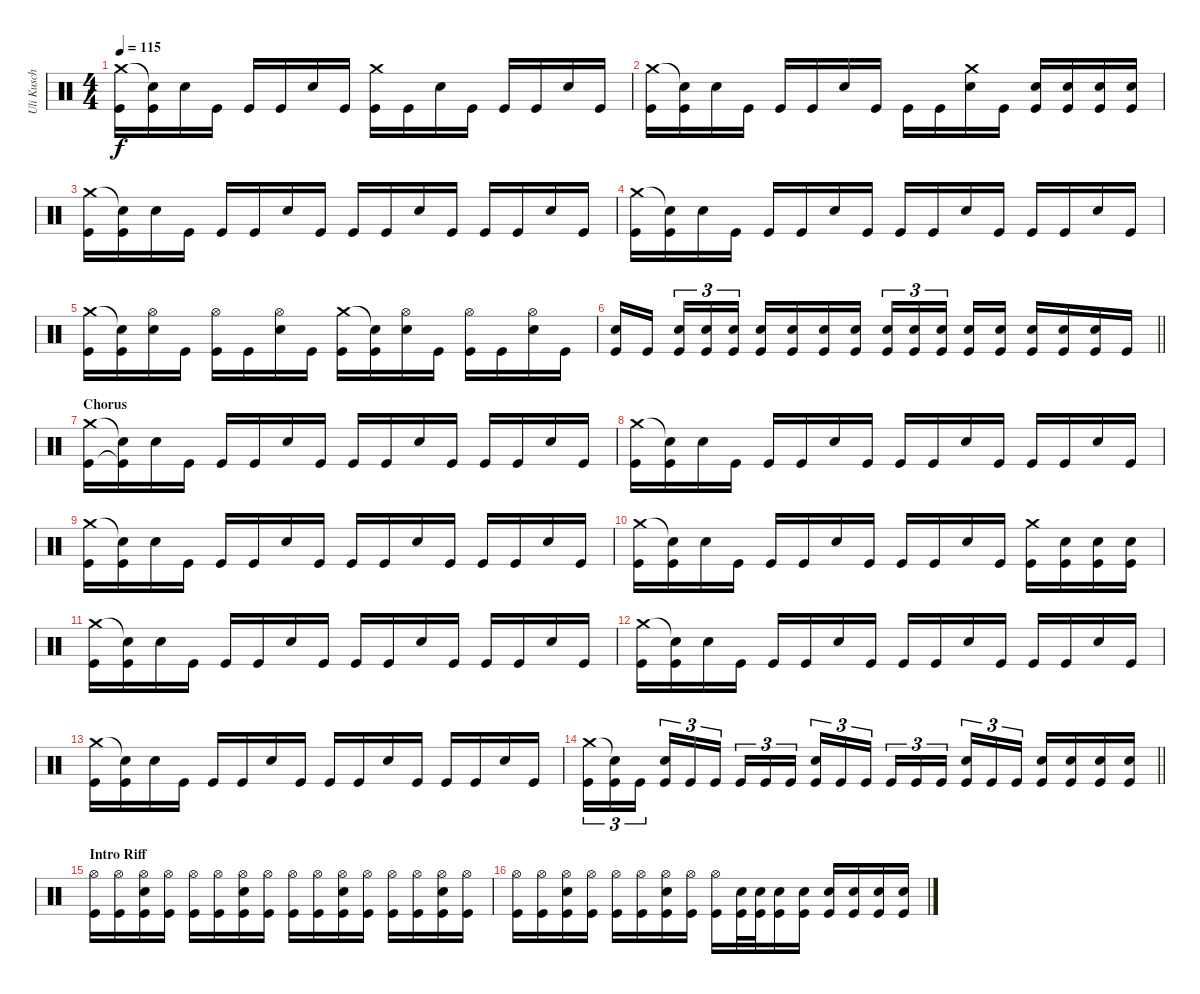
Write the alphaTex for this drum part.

\track ("Uli Kusch (Drums)" "Uli Kusch ") {instrument percussion}
\staff {score}
\articulation defaults
\ts (4 4)
\tempo 115
\clef neutral
\ks c
("Crash medium (hit)" "Kick (hit)").16{dy f} ("Snare (hit)"{t} "Kick (hit)").16 "Snare (hit) 2".16 "Kick (hit)".16 "Kick (hit)".16 "Kick (hit)".16 "Snare (hit) 2".16 "Kick (hit)".16 ("Crash medium (hit)" "Kick (hit)").16 "Kick (hit)".16 "Snare (hit) 2".16 "Kick (hit)".16 "Kick (hit)".16 "Kick (hit)".16 "Snare (hit) 2".16 "Kick (hit)".16 |
("Crash medium (hit)" "Kick (hit)").16 ("Snare (hit)"{t} "Kick (hit)").16 "Snare (hit) 2".16 "Kick (hit)".16 "Kick (hit)".16 "Kick (hit)".16 "Snare (hit) 2".16 "Kick (hit)".16 "Kick (hit)".16 "Kick (hit)".16 ("Crash medium (hit)" "Snare (hit) 2").16 "Kick (hit)".16 ("Electric Snare (hit)" "Kick (hit)").16 ("Electric Snare (hit)" "Kick (hit)").16 ("Snare (hit) 2" "Kick (hit)").16 ("Snare (hit) 2" "Kick (hit)").16 |
("Crash medium (hit)" "Kick (hit)").16 ("Snare (hit)"{t} "Kick (hit)").16 "Snare (hit) 2".16 "Kick (hit)".16 "Kick (hit)".16 "Kick (hit)".16 "Snare (hit) 2".16 "Kick (hit)".16 "Kick (hit)".16 "Kick (hit)".16 "Snare (hit) 2".16 "Kick (hit)".16 "Kick (hit)".16 "Kick (hit)".16 "Snare (hit) 2".16 "Kick (hit)".16 |
("Crash medium (hit)" "Kick (hit)").16 ("Snare (hit)"{t} "Kick (hit)").16 "Snare (hit) 2".16 "Kick (hit)".16 "Kick (hit)".16 "Kick (hit)".16 "Snare (hit) 2".16 "Kick (hit)".16 "Kick (hit)".16 "Kick (hit)".16 "Snare (hit) 2".16 "Kick (hit)".16 "Kick (hit)".16 "Kick (hit)".16 "Snare (hit) 2".16 "Kick (hit)".16 |
("Crash medium (hit)" "Kick (hit)").16 ("Snare (hit)"{t} "Kick (hit)").16 ("Hi-Hat (open)" "Snare (hit) 2").16 "Kick (hit)".16 ("Hi-Hat (open)" "Kick (hit)").16 "Kick (hit)".16 ("Hi-Hat (open)" "Snare (hit) 2").16 "Kick (hit)".16 ("Crash medium (hit)" "Kick (hit)").16 ("Snare (hit)"{t} "Kick (hit)").16 ("Hi-Hat (open)" "Snare (hit) 2").16 "Kick (hit)".16 ("Hi-Hat (open)" "Kick (hit)").16 "Kick (hit)".16 ("Hi-Hat (open)" "Snare (hit) 2").16 "Kick (hit)".16 |
\barLineRight lightlight
("Snare (hit) 2" "Kick (hit)").16 "Kick (hit)".16{beam splitsecondary} ("Snare (hit) 2" "Kick (hit)").16{tu (3 2)} ("Snare (hit) 2" "Kick (hit)").16{tu (3 2)} ("Snare (hit) 2" "Kick (hit)").16{tu (3 2)} ("Snare (hit) 2" "Kick (hit)").16 ("Snare (hit) 2" "Kick (hit)").16 ("Snare (hit) 2" "Kick (hit)").16 ("Snare (hit) 2" "Kick (hit)").16 ("Snare (hit) 2" "Kick (hit)").16{tu (3 2)} ("Snare (hit) 2" "Kick (hit)").16{tu (3 2)} ("Snare (hit) 2" "Kick (hit)").16{tu (3 2) beam splitsecondary} ("Snare (hit) 2" "Kick (hit)").16 ("Snare (hit) 2" "Kick (hit)").16 ("Snare (hit) 2" "Kick (hit)").16 ("Snare (hit) 2" "Kick (hit)").16 ("Snare (hit) 2" "Kick (hit)").16 "Kick (hit)".16 |
\section ("" "Chorus")
("Crash medium (hit)" "Kick (hit)").16 ("Snare (hit)"{t} "Kick (hit)"{t}).16 "Snare (hit) 2".16 "Kick (hit)".16 "Kick (hit)".16 "Kick (hit)".16 "Snare (hit) 2".16 "Kick (hit)".16 "Kick (hit)".16 "Kick (hit)".16 "Snare (hit) 2".16 "Kick (hit)".16 "Kick (hit)".16 "Kick (hit)".16 "Snare (hit) 2".16 "Kick (hit)".16 |
("Crash medium (hit)" "Kick (hit)").16 ("Snare (hit)"{t} "Kick (hit)").16 "Snare (hit) 2".16 "Kick (hit)".16 "Kick (hit)".16 "Kick (hit)".16 "Snare (hit) 2".16 "Kick (hit)".16 "Kick (hit)".16 "Kick (hit)".16 "Snare (hit) 2".16 "Kick (hit)".16 "Kick (hit)".16 "Kick (hit)".16 "Snare (hit) 2".16 "Kick (hit)".16 |
("Crash medium (hit)" "Kick (hit)").16 ("Snare (hit)"{t} "Kick (hit)").16 "Snare (hit) 2".16 "Kick (hit)".16 "Kick (hit)".16 "Kick (hit)".16 "Snare (hit) 2".16 "Kick (hit)".16 "Kick (hit)".16 "Kick (hit)".16 "Snare (hit) 2".16 "Kick (hit)".16 "Kick (hit)".16 "Kick (hit)".16 "Snare (hit) 2".16 "Kick (hit)".16 |
("Crash medium (hit)" "Kick (hit)").16 ("Snare (hit)"{t} "Kick (hit)").16 "Snare (hit) 2".16 "Kick (hit)".16 "Kick (hit)".16 "Kick (hit)".16 "Snare (hit) 2".16 "Kick (hit)".16 "Kick (hit)".16 "Kick (hit)".16 "Snare (hit) 2".16 "Kick (hit)".16 ("Crash medium (hit)" "Kick (hit)").16 ("Snare (hit) 2" "Kick (hit)").16 ("Snare (hit) 2" "Kick (hit)").16 ("Snare (hit) 2" "Kick (hit)").16 |
("Crash medium (hit)" "Kick (hit)").16 ("Snare (hit)"{t} "Kick (hit)").16 "Snare (hit) 2".16 "Kick (hit)".16 "Kick (hit)".16 "Kick (hit)".16 "Snare (hit) 2".16 "Kick (hit)".16 "Kick (hit)".16 "Kick (hit)".16 "Snare (hit) 2".16 "Kick (hit)".16 "Kick (hit)".16 "Kick (hit)".16 "Snare (hit) 2".16 "Kick (hit)".16 |
("Crash medium (hit)" "Kick (hit)").16 ("Snare (hit)"{t} "Kick (hit)").16 "Snare (hit) 2".16 "Kick (hit)".16 "Kick (hit)".16 "Kick (hit)".16 "Snare (hit) 2".16 "Kick (hit)".16 "Kick (hit)".16 "Kick (hit)".16 "Snare (hit) 2".16 "Kick (hit)".16 "Kick (hit)".16 "Kick (hit)".16 "Snare (hit) 2".16 "Kick (hit)".16 |
("Crash medium (hit)" "Kick (hit)").16 ("Snare (hit)"{t} "Kick (hit)").16 "Snare (hit) 2".16 "Kick (hit)".16 "Kick (hit)".16 "Kick (hit)".16 "Snare (hit) 2".16 "Kick (hit)".16 "Kick (hit)".16 "Kick (hit)".16 "Snare (hit) 2".16 "Kick (hit)".16 "Kick (hit)".16 "Kick (hit)".16 "Snare (hit) 2".16 "Kick (hit)".16 |
\barLineRight lightlight
("Crash medium (hit)" "Kick (hit)").16{tu (3 2)} ("Snare (hit)"{t} "Kick (hit)").16{tu (3 2)} "Kick (hit)".16{tu (3 2) beam splitsecondary} ("Snare (hit) 2" "Kick (hit)").16{tu (3 2)} "Kick (hit)".16{tu (3 2)} "Kick (hit)".16{tu (3 2)} "Kick (hit)".16{tu (3 2)} "Kick (hit)".16{tu (3 2)} "Kick (hit)".16{tu (3 2) beam splitsecondary} ("Snare (hit) 2" "Kick (hit)").16{tu (3 2)} "Kick (hit)".16{tu (3 2)} "Kick (hit)".16{tu (3 2)} "Kick (hit)".16{tu (3 2)} "Kick (hit)".16{tu (3 2)} "Kick (hit)".16{tu (3 2) beam splitsecondary} ("Snare (hit) 2" "Kick (hit)").16{tu (3 2)} "Kick (hit)".16{tu (3 2)} "Kick (hit)".16{tu (3 2)} ("Snare (hit) 2" "Kick (hit)").16 ("Snare (hit) 2" "Kick (hit)").16 ("Snare (hit) 2" "Kick (hit)").16 ("Snare (hit) 2" "Kick (hit)").16 |
\section ("" "Intro Riff")
("Hi-Hat (open)" "Kick (hit)").16 ("Hi-Hat (open)" "Kick (hit)").16 ("Hi-Hat (open)" "Snare (hit) 2" "Kick (hit)").16 ("Hi-Hat (open)" "Kick (hit)").16 ("Hi-Hat (open)" "Kick (hit)").16 ("Hi-Hat (open)" "Kick (hit)").16 ("Hi-Hat (open)" "Snare (hit) 2" "Kick (hit)").16 ("Hi-Hat (open)" "Kick (hit)").16 ("Hi-Hat (open)" "Kick (hit)").16 ("Hi-Hat (open)" "Kick (hit)").16 ("Hi-Hat (open)" "Snare (hit) 2" "Kick (hit)").16 ("Hi-Hat (open)" "Kick (hit)").16 ("Hi-Hat (open)" "Kick (hit)").16 ("Hi-Hat (open)" "Kick (hit)").16 ("Hi-Hat (open)" "Snare (hit) 2" "Kick (hit)").16 ("Hi-Hat (open)" "Kick (hit)").16 |
("Hi-Hat (open)" "Kick (hit)").16 ("Hi-Hat (open)" "Kick (hit)").16 ("Hi-Hat (open)" "Snare (hit) 2" "Kick (hit)").16 ("Hi-Hat (open)" "Kick (hit)").16 ("Hi-Hat (open)" "Kick (hit)").16 ("Hi-Hat (open)" "Kick (hit)").16 ("Hi-Hat (open)" "Snare (hit) 2" "Kick (hit)").16 ("Hi-Hat (open)" "Kick (hit)").16 ("Hi-Hat (open)" "Kick (hit)").16 ("Snare (hit) 2" "Kick (hit)").32 ("Electric Snare (hit)" "Kick (hit)").32 ("Snare (hit) 2" "Kick (hit)").16 ("Snare (hit) 2" "Kick (hit)").16 ("Snare (hit) 2" "Kick (hit)").16 ("Electric Snare (hit)" "Kick (hit)").16 ("Snare (hit) 2" "Kick (hit)").16 ("Snare (hit) 2" "Kick (hit)").16
